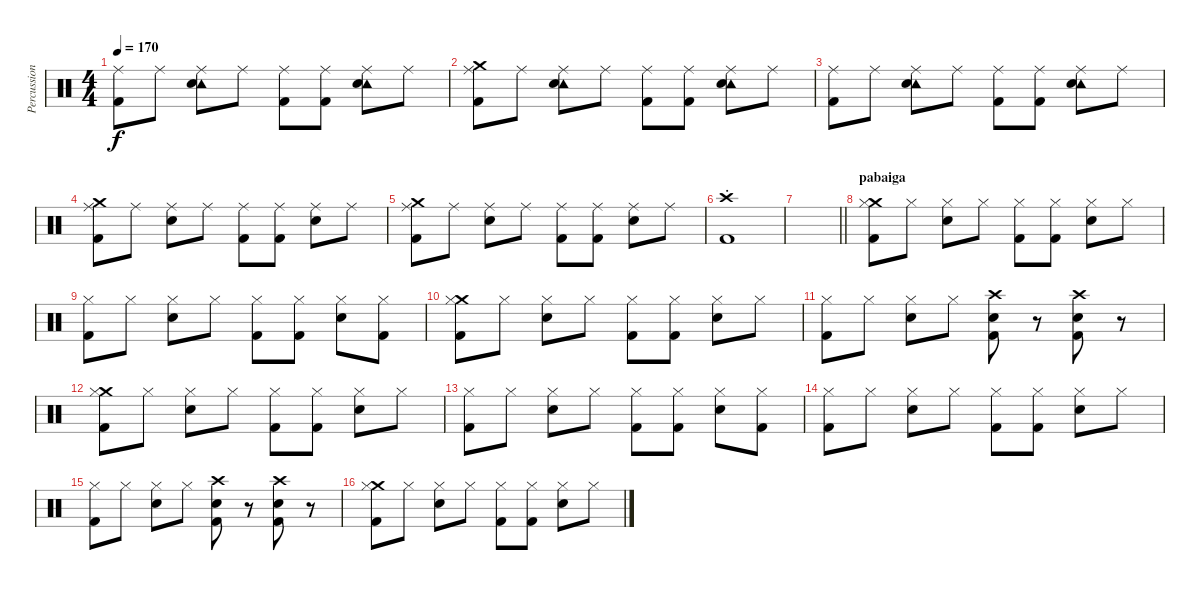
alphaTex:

\track ("Percussion" "Percussion") {instrument percussion}
\staff {score}
\articulation defaults
\ts (4 4)
\tempo 170
\clef neutral
\ks c
("Ride (middle)" "Kick (hit) 2").8{dy f} "Ride (middle)".8 ("Ride (middle)" "Tambourine (hit)" "Snare (hit) 2").8 "Ride (middle)".8 ("Ride (middle)" "Kick (hit) 2").8 ("Ride (middle)" "Kick (hit) 2").8 ("Ride (middle)" "Tambourine (hit)" "Snare (hit) 2").8 "Ride (middle)".8 |
("Crash medium (hit)" "Ride (middle)" "Kick (hit) 2").8 "Ride (middle)".8 ("Ride (middle)" "Tambourine (hit)" "Snare (hit) 2").8 "Ride (middle)".8 ("Ride (middle)" "Kick (hit) 2").8 ("Ride (middle)" "Kick (hit) 2").8 ("Ride (middle)" "Tambourine (hit)" "Snare (hit) 2").8 "Ride (middle)".8 |
("Ride (middle)" "Kick (hit) 2").8 "Ride (middle)".8 ("Ride (middle)" "Tambourine (hit)" "Snare (hit) 2").8 "Ride (middle)".8 ("Ride (middle)" "Kick (hit) 2").8 ("Ride (middle)" "Kick (hit) 2").8 ("Ride (middle)" "Tambourine (hit)" "Snare (hit) 2").8 "Ride (middle)".8 |
("Crash medium (hit)" "Ride (middle)" "Kick (hit) 2").8 "Ride (middle)".8 ("Ride (middle)" "Snare (hit) 2").8 "Ride (middle)".8 ("Ride (middle)" "Kick (hit) 2").8 ("Ride (middle)" "Kick (hit) 2").8 ("Ride (middle)" "Snare (hit) 2").8 "Ride (middle)".8 |
("Crash medium (hit)" "Ride (middle)" "Kick (hit) 2").8 "Ride (middle)".8 ("Ride (middle)" "Snare (hit) 2").8 "Ride (middle)".8 ("Ride (middle)" "Kick (hit) 2").8 ("Ride (middle)" "Kick (hit) 2").8 ("Ride (middle)" "Snare (hit) 2").8 "Ride (middle)".8 |
("Crash high (hit)"{st} "Kick (hit) 2").1 |
\barLineRight lightlight
|
\section ("" "pabaiga")
("Crash medium (hit)" "Hi-Hat (closed)" "Kick (hit) 2").8 "Hi-Hat (closed)".8 ("Hi-Hat (closed)" "Snare (hit) 2").8 "Hi-Hat (closed)".8 ("Hi-Hat (closed)" "Kick (hit) 2").8 ("Hi-Hat (closed)" "Kick (hit) 2").8 ("Hi-Hat (closed)" "Snare (hit) 2").8 "Hi-Hat (closed)".8 |
("Hi-Hat (closed)" "Kick (hit) 2").8 "Hi-Hat (closed)".8 ("Hi-Hat (closed)" "Snare (hit) 2").8 "Hi-Hat (closed)".8 ("Hi-Hat (closed)" "Kick (hit) 2").8 ("Hi-Hat (closed)" "Kick (hit) 2").8 ("Hi-Hat (closed)" "Snare (hit) 2").8 ("Hi-Hat (closed)" "Kick (hit) 2").8 |
("Crash medium (hit)" "Hi-Hat (closed)" "Kick (hit) 2").8 "Hi-Hat (closed)".8 ("Hi-Hat (closed)" "Snare (hit) 2").8 "Hi-Hat (closed)".8 ("Hi-Hat (closed)" "Kick (hit) 2").8 ("Hi-Hat (closed)" "Kick (hit) 2").8 ("Hi-Hat (closed)" "Snare (hit) 2").8 "Hi-Hat (closed)".8 |
("Hi-Hat (closed)" "Kick (hit) 2").8 "Hi-Hat (closed)".8 ("Hi-Hat (closed)" "Snare (hit) 2").8 "Hi-Hat (closed)".8 ("Crash high (hit)" "Snare (hit) 2" "Kick (hit) 2").8 r.8 ("Crash high (hit)" "Snare (hit) 2" "Kick (hit) 2").8 r.8 |
("Crash medium (hit)" "Hi-Hat (closed)" "Kick (hit) 2").8 "Hi-Hat (closed)".8 ("Hi-Hat (closed)" "Snare (hit) 2").8 "Hi-Hat (closed)".8 ("Hi-Hat (closed)" "Kick (hit) 2").8 ("Hi-Hat (closed)" "Kick (hit) 2").8 ("Hi-Hat (closed)" "Snare (hit) 2").8 "Hi-Hat (closed)".8 |
("Hi-Hat (closed)" "Kick (hit) 2").8 "Hi-Hat (closed)".8 ("Hi-Hat (closed)" "Snare (hit) 2").8 "Hi-Hat (closed)".8 ("Hi-Hat (closed)" "Kick (hit) 2").8 ("Hi-Hat (closed)" "Kick (hit) 2").8 ("Hi-Hat (closed)" "Snare (hit) 2").8 ("Hi-Hat (closed)" "Kick (hit) 2").8 |
("Hi-Hat (closed)" "Kick (hit) 2").8 "Hi-Hat (closed)".8 ("Hi-Hat (closed)" "Snare (hit) 2").8 "Hi-Hat (closed)".8 ("Hi-Hat (closed)" "Kick (hit) 2").8 ("Hi-Hat (closed)" "Kick (hit) 2").8 ("Hi-Hat (closed)" "Snare (hit) 2").8 "Hi-Hat (closed)".8 |
("Hi-Hat (closed)" "Kick (hit) 2").8 "Hi-Hat (closed)".8 ("Hi-Hat (closed)" "Snare (hit) 2").8 "Hi-Hat (closed)".8 ("Crash high (hit)" "Snare (hit) 2" "Kick (hit) 2").8 r.8 ("Crash high (hit)" "Snare (hit) 2" "Kick (hit) 2").8 r.8 |
("Crash medium (hit)" "Hi-Hat (closed)" "Kick (hit) 2").8 "Hi-Hat (closed)".8 ("Hi-Hat (closed)" "Snare (hit) 2").8 "Hi-Hat (closed)".8 ("Hi-Hat (closed)" "Kick (hit) 2").8 ("Hi-Hat (closed)" "Kick (hit) 2").8 ("Hi-Hat (closed)" "Snare (hit) 2").8 "Hi-Hat (closed)".8
